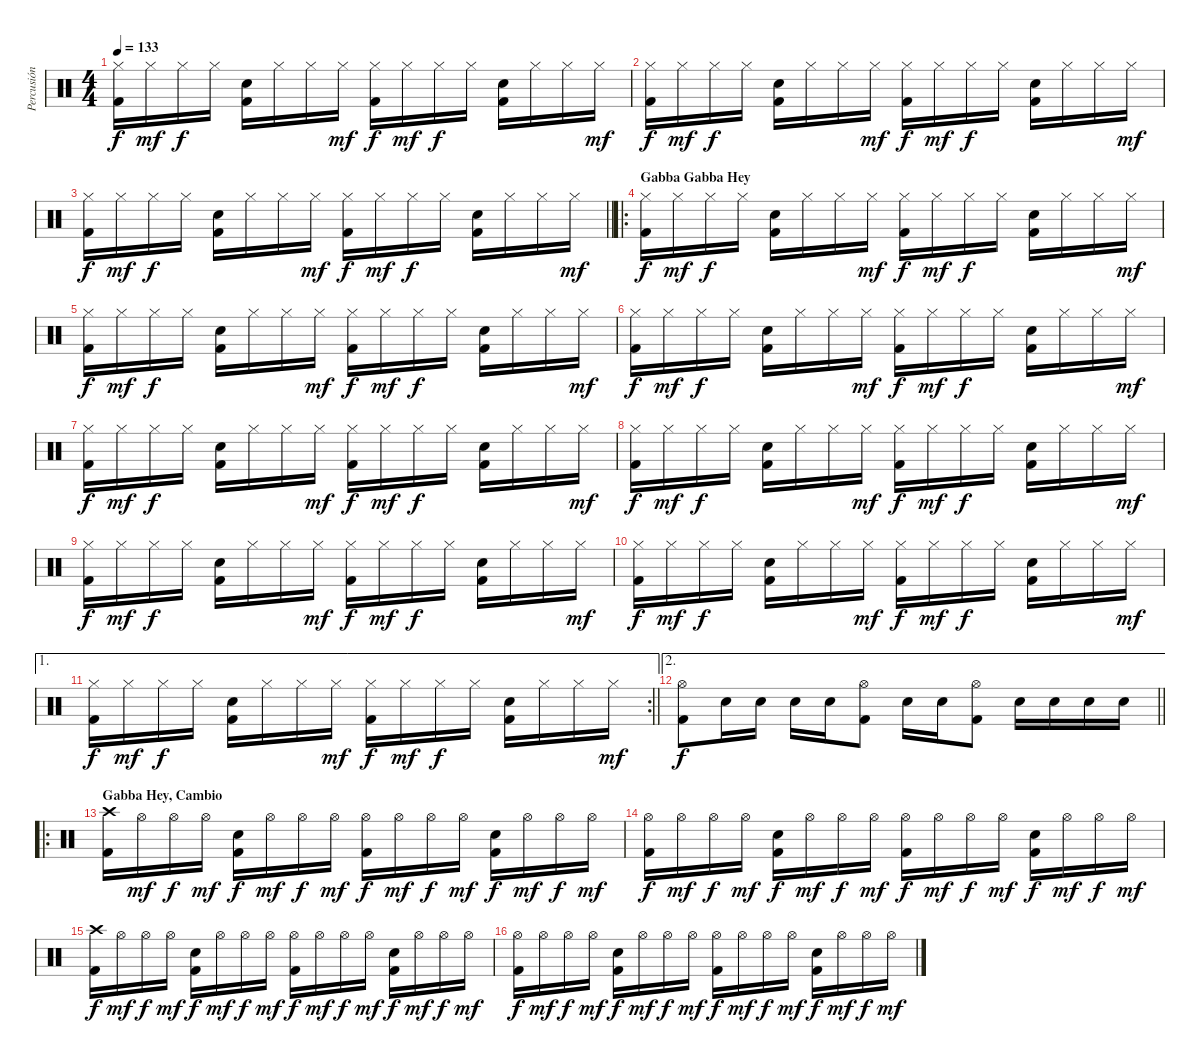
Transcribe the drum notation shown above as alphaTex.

\track ("Percusión" "Percusión") {instrument percussion}
\staff {score}
\articulation defaults
\ts (4 4)
\tempo 133
\clef neutral
\ks c
("Hi-Hat (closed)" "Kick (hit) 2").16{dy f} "Hi-Hat (closed)".16{dy mf} "Hi-Hat (closed)".16{dy f} "Hi-Hat (closed)".16 ("Snare (hit) 2" "Kick (hit) 2").16 "Hi-Hat (closed)".16 "Hi-Hat (closed)".16 "Hi-Hat (closed)".16{dy mf} ("Hi-Hat (closed)" "Kick (hit) 2").16{dy f} "Hi-Hat (closed)".16{dy mf} "Hi-Hat (closed)".16{dy f} "Hi-Hat (closed)".16 ("Snare (hit) 2" "Kick (hit) 2").16 "Hi-Hat (closed)".16 "Hi-Hat (closed)".16 "Hi-Hat (closed)".16{dy mf} |
("Hi-Hat (closed)" "Kick (hit) 2").16{dy f} "Hi-Hat (closed)".16{dy mf} "Hi-Hat (closed)".16{dy f} "Hi-Hat (closed)".16 ("Snare (hit) 2" "Kick (hit) 2").16 "Hi-Hat (closed)".16 "Hi-Hat (closed)".16 "Hi-Hat (closed)".16{dy mf} ("Hi-Hat (closed)" "Kick (hit) 2").16{dy f} "Hi-Hat (closed)".16{dy mf} "Hi-Hat (closed)".16{dy f} "Hi-Hat (closed)".16 ("Snare (hit) 2" "Kick (hit) 2").16 "Hi-Hat (closed)".16 "Hi-Hat (closed)".16 "Hi-Hat (closed)".16{dy mf} |
\barLineRight lightlight
("Hi-Hat (closed)" "Kick (hit) 2").16{dy f} "Hi-Hat (closed)".16{dy mf} "Hi-Hat (closed)".16{dy f} "Hi-Hat (closed)".16 ("Snare (hit) 2" "Kick (hit) 2").16 "Hi-Hat (closed)".16 "Hi-Hat (closed)".16 "Hi-Hat (closed)".16{dy mf} ("Hi-Hat (closed)" "Kick (hit) 2").16{dy f} "Hi-Hat (closed)".16{dy mf} "Hi-Hat (closed)".16{dy f} "Hi-Hat (closed)".16 ("Snare (hit) 2" "Kick (hit) 2").16 "Hi-Hat (closed)".16 "Hi-Hat (closed)".16 "Hi-Hat (closed)".16{dy mf} |
\ro
\section ("" "Gabba Gabba Hey")
("Hi-Hat (closed)" "Kick (hit) 2").16{dy f} "Hi-Hat (closed)".16{dy mf} "Hi-Hat (closed)".16{dy f} "Hi-Hat (closed)".16 ("Snare (hit) 2" "Kick (hit) 2").16 "Hi-Hat (closed)".16 "Hi-Hat (closed)".16 "Hi-Hat (closed)".16{dy mf} ("Hi-Hat (closed)" "Kick (hit) 2").16{dy f} "Hi-Hat (closed)".16{dy mf} "Hi-Hat (closed)".16{dy f} "Hi-Hat (closed)".16 ("Snare (hit) 2" "Kick (hit) 2").16 "Hi-Hat (closed)".16 "Hi-Hat (closed)".16 "Hi-Hat (closed)".16{dy mf} |
("Hi-Hat (closed)" "Kick (hit) 2").16{dy f} "Hi-Hat (closed)".16{dy mf} "Hi-Hat (closed)".16{dy f} "Hi-Hat (closed)".16 ("Snare (hit) 2" "Kick (hit) 2").16 "Hi-Hat (closed)".16 "Hi-Hat (closed)".16 "Hi-Hat (closed)".16{dy mf} ("Hi-Hat (closed)" "Kick (hit) 2").16{dy f} "Hi-Hat (closed)".16{dy mf} "Hi-Hat (closed)".16{dy f} "Hi-Hat (closed)".16 ("Snare (hit) 2" "Kick (hit) 2").16 "Hi-Hat (closed)".16 "Hi-Hat (closed)".16 "Hi-Hat (closed)".16{dy mf} |
("Hi-Hat (closed)" "Kick (hit) 2").16{dy f} "Hi-Hat (closed)".16{dy mf} "Hi-Hat (closed)".16{dy f} "Hi-Hat (closed)".16 ("Snare (hit) 2" "Kick (hit) 2").16 "Hi-Hat (closed)".16 "Hi-Hat (closed)".16 "Hi-Hat (closed)".16{dy mf} ("Hi-Hat (closed)" "Kick (hit) 2").16{dy f} "Hi-Hat (closed)".16{dy mf} "Hi-Hat (closed)".16{dy f} "Hi-Hat (closed)".16 ("Snare (hit) 2" "Kick (hit) 2").16 "Hi-Hat (closed)".16 "Hi-Hat (closed)".16 "Hi-Hat (closed)".16{dy mf} |
("Hi-Hat (closed)" "Kick (hit) 2").16{dy f} "Hi-Hat (closed)".16{dy mf} "Hi-Hat (closed)".16{dy f} "Hi-Hat (closed)".16 ("Snare (hit) 2" "Kick (hit) 2").16 "Hi-Hat (closed)".16 "Hi-Hat (closed)".16 "Hi-Hat (closed)".16{dy mf} ("Hi-Hat (closed)" "Kick (hit) 2").16{dy f} "Hi-Hat (closed)".16{dy mf} "Hi-Hat (closed)".16{dy f} "Hi-Hat (closed)".16 ("Snare (hit) 2" "Kick (hit) 2").16 "Hi-Hat (closed)".16 "Hi-Hat (closed)".16 "Hi-Hat (closed)".16{dy mf} |
("Hi-Hat (closed)" "Kick (hit) 2").16{dy f} "Hi-Hat (closed)".16{dy mf} "Hi-Hat (closed)".16{dy f} "Hi-Hat (closed)".16 ("Snare (hit) 2" "Kick (hit) 2").16 "Hi-Hat (closed)".16 "Hi-Hat (closed)".16 "Hi-Hat (closed)".16{dy mf} ("Hi-Hat (closed)" "Kick (hit) 2").16{dy f} "Hi-Hat (closed)".16{dy mf} "Hi-Hat (closed)".16{dy f} "Hi-Hat (closed)".16 ("Snare (hit) 2" "Kick (hit) 2").16 "Hi-Hat (closed)".16 "Hi-Hat (closed)".16 "Hi-Hat (closed)".16{dy mf} |
("Hi-Hat (closed)" "Kick (hit) 2").16{dy f} "Hi-Hat (closed)".16{dy mf} "Hi-Hat (closed)".16{dy f} "Hi-Hat (closed)".16 ("Snare (hit) 2" "Kick (hit) 2").16 "Hi-Hat (closed)".16 "Hi-Hat (closed)".16 "Hi-Hat (closed)".16{dy mf} ("Hi-Hat (closed)" "Kick (hit) 2").16{dy f} "Hi-Hat (closed)".16{dy mf} "Hi-Hat (closed)".16{dy f} "Hi-Hat (closed)".16 ("Snare (hit) 2" "Kick (hit) 2").16 "Hi-Hat (closed)".16 "Hi-Hat (closed)".16 "Hi-Hat (closed)".16{dy mf} |
("Hi-Hat (closed)" "Kick (hit) 2").16{dy f} "Hi-Hat (closed)".16{dy mf} "Hi-Hat (closed)".16{dy f} "Hi-Hat (closed)".16 ("Snare (hit) 2" "Kick (hit) 2").16 "Hi-Hat (closed)".16 "Hi-Hat (closed)".16 "Hi-Hat (closed)".16{dy mf} ("Hi-Hat (closed)" "Kick (hit) 2").16{dy f} "Hi-Hat (closed)".16{dy mf} "Hi-Hat (closed)".16{dy f} "Hi-Hat (closed)".16 ("Snare (hit) 2" "Kick (hit) 2").16 "Hi-Hat (closed)".16 "Hi-Hat (closed)".16 "Hi-Hat (closed)".16{dy mf} |
\ae 1
\rc 2
\barLineRight lightlight
("Hi-Hat (closed)" "Kick (hit) 2").16{dy f} "Hi-Hat (closed)".16{dy mf} "Hi-Hat (closed)".16{dy f} "Hi-Hat (closed)".16 ("Snare (hit) 2" "Kick (hit) 2").16 "Hi-Hat (closed)".16 "Hi-Hat (closed)".16 "Hi-Hat (closed)".16{dy mf} ("Hi-Hat (closed)" "Kick (hit) 2").16{dy f} "Hi-Hat (closed)".16{dy mf} "Hi-Hat (closed)".16{dy f} "Hi-Hat (closed)".16 ("Snare (hit) 2" "Kick (hit) 2").16 "Hi-Hat (closed)".16 "Hi-Hat (closed)".16 "Hi-Hat (closed)".16{dy mf} |
\ae 2
\barLineRight lightlight
("Hi-Hat (open)" "Kick (hit) 2").8{dy f} "Snare (hit) 2".16 "Snare (hit) 2".16 "Snare (hit) 2".16 "Snare (hit) 2".16 ("Hi-Hat (open)" "Kick (hit) 2").8 "Snare (hit) 2".16 "Snare (hit) 2".16 ("Hi-Hat (open)" "Kick (hit) 2").8 "Snare (hit) 2".16 "Snare (hit) 2".16 "Snare (hit) 2".16 "Snare (hit) 2".16 |
\ro
\section ("" "Gabba Hey, Cambio")
("Crash high (hit)" "Kick (hit) 2").16 "Hi-Hat (open)".16{dy mf} "Hi-Hat (open)".16{dy f} "Hi-Hat (open)".16{dy mf} ("Snare (hit) 2" "Kick (hit) 2").16{dy f} "Hi-Hat (open)".16{dy mf} "Hi-Hat (open)".16{dy f} "Hi-Hat (open)".16{dy mf} ("Hi-Hat (open)" "Kick (hit) 2").16{dy f} "Hi-Hat (open)".16{dy mf} "Hi-Hat (open)".16{dy f} "Hi-Hat (open)".16{dy mf} ("Snare (hit) 2" "Kick (hit) 2").16{dy f} "Hi-Hat (open)".16{dy mf} "Hi-Hat (open)".16{dy f} "Hi-Hat (open)".16{dy mf} |
("Hi-Hat (open)" "Kick (hit) 2").16{dy f} "Hi-Hat (open)".16{dy mf} "Hi-Hat (open)".16{dy f} "Hi-Hat (open)".16{dy mf} ("Snare (hit) 2" "Kick (hit) 2").16{dy f} "Hi-Hat (open)".16{dy mf} "Hi-Hat (open)".16{dy f} "Hi-Hat (open)".16{dy mf} ("Hi-Hat (open)" "Kick (hit) 2").16{dy f} "Hi-Hat (open)".16{dy mf} "Hi-Hat (open)".16{dy f} "Hi-Hat (open)".16{dy mf} ("Snare (hit) 2" "Kick (hit) 2").16{dy f} "Hi-Hat (open)".16{dy mf} "Hi-Hat (open)".16{dy f} "Hi-Hat (open)".16{dy mf} |
("Crash high (hit)" "Kick (hit) 2").16{dy f} "Hi-Hat (open)".16{dy mf} "Hi-Hat (open)".16{dy f} "Hi-Hat (open)".16{dy mf} ("Snare (hit) 2" "Kick (hit) 2").16{dy f} "Hi-Hat (open)".16{dy mf} "Hi-Hat (open)".16{dy f} "Hi-Hat (open)".16{dy mf} ("Hi-Hat (open)" "Kick (hit) 2").16{dy f} "Hi-Hat (open)".16{dy mf} "Hi-Hat (open)".16{dy f} "Hi-Hat (open)".16{dy mf} ("Snare (hit) 2" "Kick (hit) 2").16{dy f} "Hi-Hat (open)".16{dy mf} "Hi-Hat (open)".16{dy f} "Hi-Hat (open)".16{dy mf} |
("Hi-Hat (open)" "Kick (hit) 2").16{dy f} "Hi-Hat (open)".16{dy mf} "Hi-Hat (open)".16{dy f} "Hi-Hat (open)".16{dy mf} ("Snare (hit) 2" "Kick (hit) 2").16{dy f} "Hi-Hat (open)".16{dy mf} "Hi-Hat (open)".16{dy f} "Hi-Hat (open)".16{dy mf} ("Hi-Hat (open)" "Kick (hit) 2").16{dy f} "Hi-Hat (open)".16{dy mf} "Hi-Hat (open)".16{dy f} "Hi-Hat (open)".16{dy mf} ("Snare (hit) 2" "Kick (hit) 2").16{dy f} "Hi-Hat (open)".16{dy mf} "Hi-Hat (open)".16{dy f} "Hi-Hat (open)".16{dy mf}
